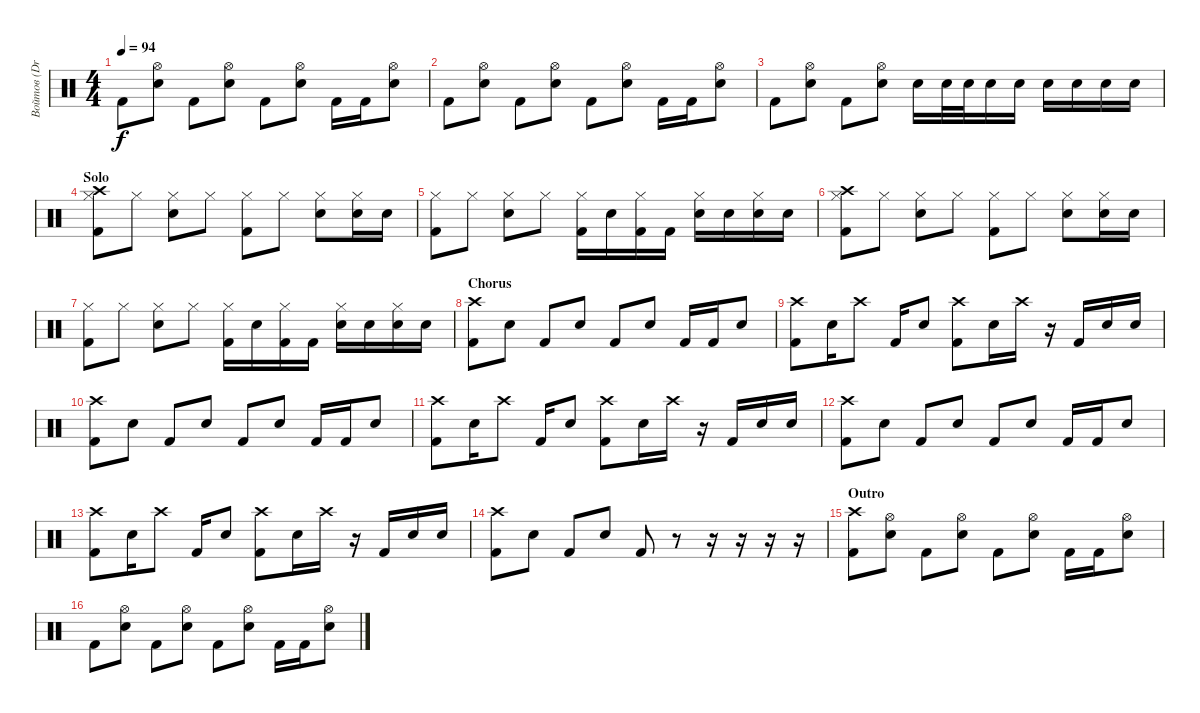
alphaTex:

\track ("Войтов (Drums)" "Войтов (Dr") {instrument percussion}
\staff {score}
\articulation defaults
\ts (4 4)
\tempo 94
\clef neutral
\ks c "Kick (hit) 2".8{dy f}
("Electric Snare (hit)" "Hi-Hat (open)").8 "Kick (hit) 2".8 ("Electric Snare (hit)" "Hi-Hat (open)").8 "Kick (hit) 2".8 ("Electric Snare (hit)" "Hi-Hat (open)").8 "Kick (hit) 2".16 "Kick (hit) 2".16 ("Electric Snare (hit)" "Hi-Hat (open)").8 |
"Kick (hit) 2".8 ("Electric Snare (hit)" "Hi-Hat (open)").8 "Kick (hit) 2".8 ("Electric Snare (hit)" "Hi-Hat (open)").8 "Kick (hit) 2".8 ("Electric Snare (hit)" "Hi-Hat (open)").8 "Kick (hit) 2".16 "Kick (hit) 2".16 ("Electric Snare (hit)" "Hi-Hat (open)").8 |
"Kick (hit) 2".8 ("Electric Snare (hit)" "Hi-Hat (open)").8 "Kick (hit) 2".8 ("Electric Snare (hit)" "Hi-Hat (open)").8 "Electric Snare (hit)".16 "Electric Snare (hit)".32 "Electric Snare (hit)".32 "Electric Snare (hit)".16 "Electric Snare (hit)".16 "Electric Snare (hit)".16 "Electric Snare (hit)".16 "Electric Snare (hit)".16 "Electric Snare (hit)".16 |
\section ("" "Solo")
("Kick (hit) 2" "Crash high (hit)" "Hi-Hat (closed)").8 "Hi-Hat (closed)".8 ("Electric Snare (hit)" "Hi-Hat (closed)").8 "Hi-Hat (closed)".8 ("Kick (hit) 2" "Hi-Hat (closed)").8 "Hi-Hat (closed)".8 ("Electric Snare (hit)" "Hi-Hat (closed)").8 ("Electric Snare (hit)" "Hi-Hat (closed)").16 "Electric Snare (hit)".16 |
("Kick (hit) 2" "Hi-Hat (closed)").8 "Hi-Hat (closed)".8 ("Electric Snare (hit)" "Hi-Hat (closed)").8 "Hi-Hat (closed)".8 ("Kick (hit) 2" "Hi-Hat (closed)").16 "Electric Snare (hit)".16 ("Kick (hit) 2" "Hi-Hat (closed)").16 "Kick (hit) 2".16 ("Electric Snare (hit)" "Hi-Hat (closed)").16 "Electric Snare (hit)".16 ("Electric Snare (hit)" "Hi-Hat (closed)").16 "Electric Snare (hit)".16 |
("Kick (hit) 2" "Crash high (hit)" "Hi-Hat (closed)").8 "Hi-Hat (closed)".8 ("Electric Snare (hit)" "Hi-Hat (closed)").8 "Hi-Hat (closed)".8 ("Kick (hit) 2" "Hi-Hat (closed)").8 "Hi-Hat (closed)".8 ("Electric Snare (hit)" "Hi-Hat (closed)").8 ("Electric Snare (hit)" "Hi-Hat (closed)").16 "Electric Snare (hit)".16 |
("Kick (hit) 2" "Hi-Hat (closed)").8 "Hi-Hat (closed)".8 ("Electric Snare (hit)" "Hi-Hat (closed)").8 "Hi-Hat (closed)".8 ("Kick (hit) 2" "Hi-Hat (closed)").16 "Electric Snare (hit)".16 ("Kick (hit) 2" "Hi-Hat (closed)").16 "Kick (hit) 2".16 ("Electric Snare (hit)" "Hi-Hat (closed)").16 "Electric Snare (hit)".16 ("Electric Snare (hit)" "Hi-Hat (closed)").16 "Electric Snare (hit)".16 |
\section ("" "Chorus")
("Kick (hit) 2" "Crash high (hit)").8 "Electric Snare (hit)".8 "Kick (hit) 2".8 "Electric Snare (hit)".8 "Kick (hit) 2".8 "Electric Snare (hit)".8 "Kick (hit) 2".16 "Kick (hit) 2".16 "Electric Snare (hit)".8 |
("Kick (hit) 2" "Crash high (hit)").8 "Electric Snare (hit)".16 "Crash high (hit)".8 "Kick (hit) 2".16 "Electric Snare (hit)".8 ("Kick (hit) 2" "Crash high (hit)").8 "Electric Snare (hit)".16 "Crash high (hit)".16 r.16 "Kick (hit) 2".16 "Electric Snare (hit)".16 "Electric Snare (hit)".16 |
("Kick (hit) 2" "Crash high (hit)").8 "Electric Snare (hit)".8 "Kick (hit) 2".8 "Electric Snare (hit)".8 "Kick (hit) 2".8 "Electric Snare (hit)".8 "Kick (hit) 2".16 "Kick (hit) 2".16 "Electric Snare (hit)".8 |
("Kick (hit) 2" "Crash high (hit)").8 "Electric Snare (hit)".16 "Crash high (hit)".8 "Kick (hit) 2".16 "Electric Snare (hit)".8 ("Kick (hit) 2" "Crash high (hit)").8 "Electric Snare (hit)".16 "Crash high (hit)".16 r.16 "Kick (hit) 2".16 "Electric Snare (hit)".16 "Electric Snare (hit)".16 |
("Kick (hit) 2" "Crash high (hit)").8 "Electric Snare (hit)".8 "Kick (hit) 2".8 "Electric Snare (hit)".8 "Kick (hit) 2".8 "Electric Snare (hit)".8 "Kick (hit) 2".16 "Kick (hit) 2".16 "Electric Snare (hit)".8 |
("Kick (hit) 2" "Crash high (hit)").8 "Electric Snare (hit)".16 "Crash high (hit)".8 "Kick (hit) 2".16 "Electric Snare (hit)".8 ("Kick (hit) 2" "Crash high (hit)").8 "Electric Snare (hit)".16 "Crash high (hit)".16 r.16 "Kick (hit) 2".16 "Electric Snare (hit)".16 "Electric Snare (hit)".16 |
("Kick (hit) 2" "Crash high (hit)").8 "Electric Snare (hit)".8 "Kick (hit) 2".8 "Electric Snare (hit)".8 "Kick (hit) 2".8 r.8 r.16 r.16 r.16 r.16 |
\section ("" "Outro")
("Kick (hit) 2" "Crash high (hit)").8 ("Electric Snare (hit)" "Hi-Hat (open)").8 "Kick (hit) 2".8 ("Electric Snare (hit)" "Hi-Hat (open)").8 "Kick (hit) 2".8 ("Electric Snare (hit)" "Hi-Hat (open)").8 "Kick (hit) 2".16 "Kick (hit) 2".16 ("Electric Snare (hit)" "Hi-Hat (open)").8 |
"Kick (hit) 2".8 ("Electric Snare (hit)" "Hi-Hat (open)").8 "Kick (hit) 2".8 ("Electric Snare (hit)" "Hi-Hat (open)").8 "Kick (hit) 2".8 ("Electric Snare (hit)" "Hi-Hat (open)").8 "Kick (hit) 2".16 "Kick (hit) 2".16 ("Electric Snare (hit)" "Hi-Hat (open)").8
